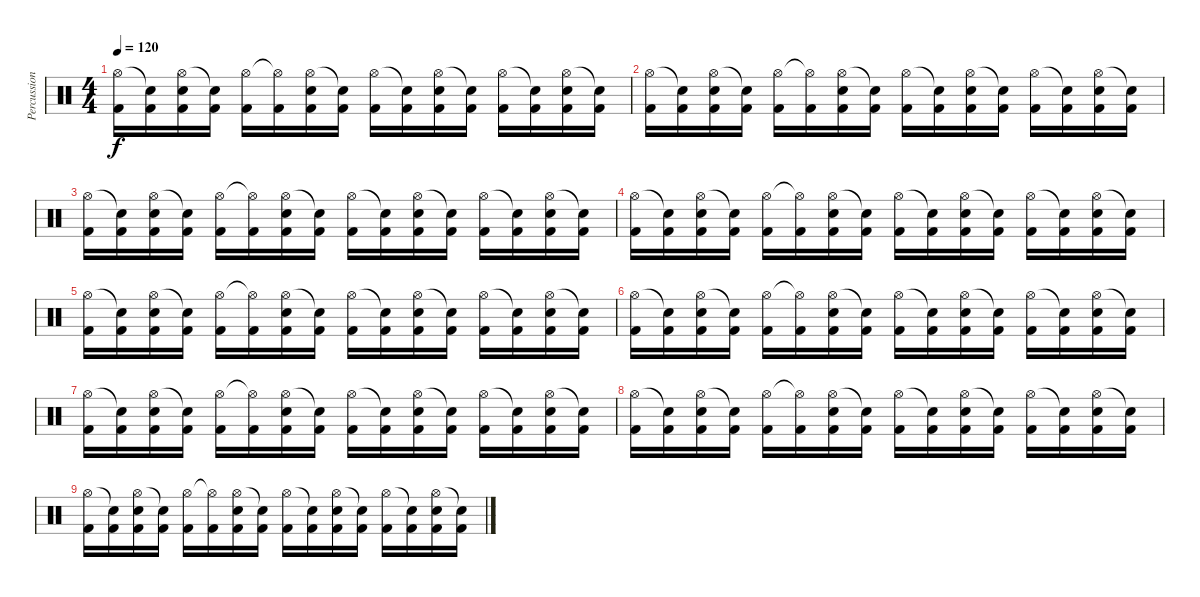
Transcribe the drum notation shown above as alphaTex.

\track ("Percussions" "Percussion") {instrument percussion}
\staff {score}
\articulation defaults
\ts (4 4)
\tempo 120
\clef neutral
\ks c
("Hi-Hat (open)" "Kick (hit) 2").16{dy f} ("Snare (hit)"{t} "Kick (hit) 2").16 ("Hi-Hat (open)" "Electric Snare (hit)" "Kick (hit) 2").16 ("Snare (hit)"{t} "Kick (hit) 2").16 ("Hi-Hat (open)" "Kick (hit) 2").16 ("Hi-Hat (open)"{t} "Kick (hit) 2").16 ("Hi-Hat (open)" "Electric Snare (hit)" "Kick (hit) 2").16 ("Snare (hit)"{t} "Kick (hit) 2").16 ("Hi-Hat (open)" "Kick (hit) 2").16 ("Snare (hit)"{t} "Kick (hit) 2").16 ("Hi-Hat (open)" "Electric Snare (hit)" "Kick (hit) 2").16 ("Snare (hit)"{t} "Kick (hit) 2").16 ("Hi-Hat (open)" "Kick (hit) 2").16 ("Snare (hit)"{t} "Kick (hit) 2").16 ("Hi-Hat (open)" "Electric Snare (hit)" "Kick (hit) 2").16 ("Snare (hit)"{t} "Kick (hit) 2").16 |
("Hi-Hat (open)" "Kick (hit) 2").16 ("Snare (hit)"{t} "Kick (hit) 2").16 ("Hi-Hat (open)" "Electric Snare (hit)" "Kick (hit) 2").16 ("Snare (hit)"{t} "Kick (hit) 2").16 ("Hi-Hat (open)" "Kick (hit) 2").16 ("Hi-Hat (open)"{t} "Kick (hit) 2").16 ("Hi-Hat (open)" "Electric Snare (hit)" "Kick (hit) 2").16 ("Snare (hit)"{t} "Kick (hit) 2").16 ("Hi-Hat (open)" "Kick (hit) 2").16 ("Snare (hit)"{t} "Kick (hit) 2").16 ("Hi-Hat (open)" "Electric Snare (hit)" "Kick (hit) 2").16 ("Snare (hit)"{t} "Kick (hit) 2").16 ("Hi-Hat (open)" "Kick (hit) 2").16 ("Snare (hit)"{t} "Kick (hit) 2").16 ("Hi-Hat (open)" "Electric Snare (hit)" "Kick (hit) 2").16 ("Snare (hit)"{t} "Kick (hit) 2").16 |
("Hi-Hat (open)" "Kick (hit) 2").16 ("Snare (hit)"{t} "Kick (hit) 2").16 ("Hi-Hat (open)" "Electric Snare (hit)" "Kick (hit) 2").16 ("Snare (hit)"{t} "Kick (hit) 2").16 ("Hi-Hat (open)" "Kick (hit) 2").16 ("Hi-Hat (open)"{t} "Kick (hit) 2").16 ("Hi-Hat (open)" "Electric Snare (hit)" "Kick (hit) 2").16 ("Snare (hit)"{t} "Kick (hit) 2").16 ("Hi-Hat (open)" "Kick (hit) 2").16 ("Snare (hit)"{t} "Kick (hit) 2").16 ("Hi-Hat (open)" "Electric Snare (hit)" "Kick (hit) 2").16 ("Snare (hit)"{t} "Kick (hit) 2").16 ("Hi-Hat (open)" "Kick (hit) 2").16 ("Snare (hit)"{t} "Kick (hit) 2").16 ("Hi-Hat (open)" "Electric Snare (hit)" "Kick (hit) 2").16 ("Snare (hit)"{t} "Kick (hit) 2").16 |
("Hi-Hat (open)" "Kick (hit) 2").16 ("Snare (hit)"{t} "Kick (hit) 2").16 ("Hi-Hat (open)" "Electric Snare (hit)" "Kick (hit) 2").16 ("Snare (hit)"{t} "Kick (hit) 2").16 ("Hi-Hat (open)" "Kick (hit) 2").16 ("Hi-Hat (open)"{t} "Kick (hit) 2").16 ("Hi-Hat (open)" "Electric Snare (hit)" "Kick (hit) 2").16 ("Snare (hit)"{t} "Kick (hit) 2").16 ("Hi-Hat (open)" "Kick (hit) 2").16 ("Snare (hit)"{t} "Kick (hit) 2").16 ("Hi-Hat (open)" "Electric Snare (hit)" "Kick (hit) 2").16 ("Snare (hit)"{t} "Kick (hit) 2").16 ("Hi-Hat (open)" "Kick (hit) 2").16 ("Snare (hit)"{t} "Kick (hit) 2").16 ("Hi-Hat (open)" "Electric Snare (hit)" "Kick (hit) 2").16 ("Snare (hit)"{t} "Kick (hit) 2").16 |
("Hi-Hat (open)" "Kick (hit) 2").16 ("Snare (hit)"{t} "Kick (hit) 2").16 ("Hi-Hat (open)" "Electric Snare (hit)" "Kick (hit) 2").16 ("Snare (hit)"{t} "Kick (hit) 2").16 ("Hi-Hat (open)" "Kick (hit) 2").16 ("Hi-Hat (open)"{t} "Kick (hit) 2").16 ("Hi-Hat (open)" "Electric Snare (hit)" "Kick (hit) 2").16 ("Snare (hit)"{t} "Kick (hit) 2").16 ("Hi-Hat (open)" "Kick (hit) 2").16 ("Snare (hit)"{t} "Kick (hit) 2").16 ("Hi-Hat (open)" "Electric Snare (hit)" "Kick (hit) 2").16 ("Snare (hit)"{t} "Kick (hit) 2").16 ("Hi-Hat (open)" "Kick (hit) 2").16 ("Snare (hit)"{t} "Kick (hit) 2").16 ("Hi-Hat (open)" "Electric Snare (hit)" "Kick (hit) 2").16 ("Snare (hit)"{t} "Kick (hit) 2").16 |
("Hi-Hat (open)" "Kick (hit) 2").16 ("Snare (hit)"{t} "Kick (hit) 2").16 ("Hi-Hat (open)" "Electric Snare (hit)" "Kick (hit) 2").16 ("Snare (hit)"{t} "Kick (hit) 2").16 ("Hi-Hat (open)" "Kick (hit) 2").16 ("Hi-Hat (open)"{t} "Kick (hit) 2").16 ("Hi-Hat (open)" "Electric Snare (hit)" "Kick (hit) 2").16 ("Snare (hit)"{t} "Kick (hit) 2").16 ("Hi-Hat (open)" "Kick (hit) 2").16 ("Snare (hit)"{t} "Kick (hit) 2").16 ("Hi-Hat (open)" "Electric Snare (hit)" "Kick (hit) 2").16 ("Snare (hit)"{t} "Kick (hit) 2").16 ("Hi-Hat (open)" "Kick (hit) 2").16 ("Snare (hit)"{t} "Kick (hit) 2").16 ("Hi-Hat (open)" "Electric Snare (hit)" "Kick (hit) 2").16 ("Snare (hit)"{t} "Kick (hit) 2").16 |
("Hi-Hat (open)" "Kick (hit) 2").16 ("Snare (hit)"{t} "Kick (hit) 2").16 ("Hi-Hat (open)" "Electric Snare (hit)" "Kick (hit) 2").16 ("Snare (hit)"{t} "Kick (hit) 2").16 ("Hi-Hat (open)" "Kick (hit) 2").16 ("Hi-Hat (open)"{t} "Kick (hit) 2").16 ("Hi-Hat (open)" "Electric Snare (hit)" "Kick (hit) 2").16 ("Snare (hit)"{t} "Kick (hit) 2").16 ("Hi-Hat (open)" "Kick (hit) 2").16 ("Snare (hit)"{t} "Kick (hit) 2").16 ("Hi-Hat (open)" "Electric Snare (hit)" "Kick (hit) 2").16 ("Snare (hit)"{t} "Kick (hit) 2").16 ("Hi-Hat (open)" "Kick (hit) 2").16 ("Snare (hit)"{t} "Kick (hit) 2").16 ("Hi-Hat (open)" "Electric Snare (hit)" "Kick (hit) 2").16 ("Snare (hit)"{t} "Kick (hit) 2").16 |
("Hi-Hat (open)" "Kick (hit) 2").16 ("Snare (hit)"{t} "Kick (hit) 2").16 ("Hi-Hat (open)" "Electric Snare (hit)" "Kick (hit) 2").16 ("Snare (hit)"{t} "Kick (hit) 2").16 ("Hi-Hat (open)" "Kick (hit) 2").16 ("Hi-Hat (open)"{t} "Kick (hit) 2").16 ("Hi-Hat (open)" "Electric Snare (hit)" "Kick (hit) 2").16 ("Snare (hit)"{t} "Kick (hit) 2").16 ("Hi-Hat (open)" "Kick (hit) 2").16 ("Snare (hit)"{t} "Kick (hit) 2").16 ("Hi-Hat (open)" "Electric Snare (hit)" "Kick (hit) 2").16 ("Snare (hit)"{t} "Kick (hit) 2").16 ("Hi-Hat (open)" "Kick (hit) 2").16 ("Snare (hit)"{t} "Kick (hit) 2").16 ("Hi-Hat (open)" "Electric Snare (hit)" "Kick (hit) 2").16 ("Snare (hit)"{t} "Kick (hit) 2").16 |
("Hi-Hat (open)" "Kick (hit) 2").16 ("Snare (hit)"{t} "Kick (hit) 2").16 ("Hi-Hat (open)" "Electric Snare (hit)" "Kick (hit) 2").16 ("Snare (hit)"{t} "Kick (hit) 2").16 ("Hi-Hat (open)" "Kick (hit) 2").16 ("Hi-Hat (open)"{t} "Kick (hit) 2").16 ("Hi-Hat (open)" "Electric Snare (hit)" "Kick (hit) 2").16 ("Snare (hit)"{t} "Kick (hit) 2").16 ("Hi-Hat (open)" "Kick (hit) 2").16 ("Snare (hit)"{t} "Kick (hit) 2").16 ("Hi-Hat (open)" "Electric Snare (hit)" "Kick (hit) 2").16 ("Snare (hit)"{t} "Kick (hit) 2").16 ("Hi-Hat (open)" "Kick (hit) 2").16 ("Snare (hit)"{t} "Kick (hit) 2").16 ("Hi-Hat (open)" "Electric Snare (hit)" "Kick (hit) 2").16 ("Snare (hit)"{t} "Kick (hit) 2").16
